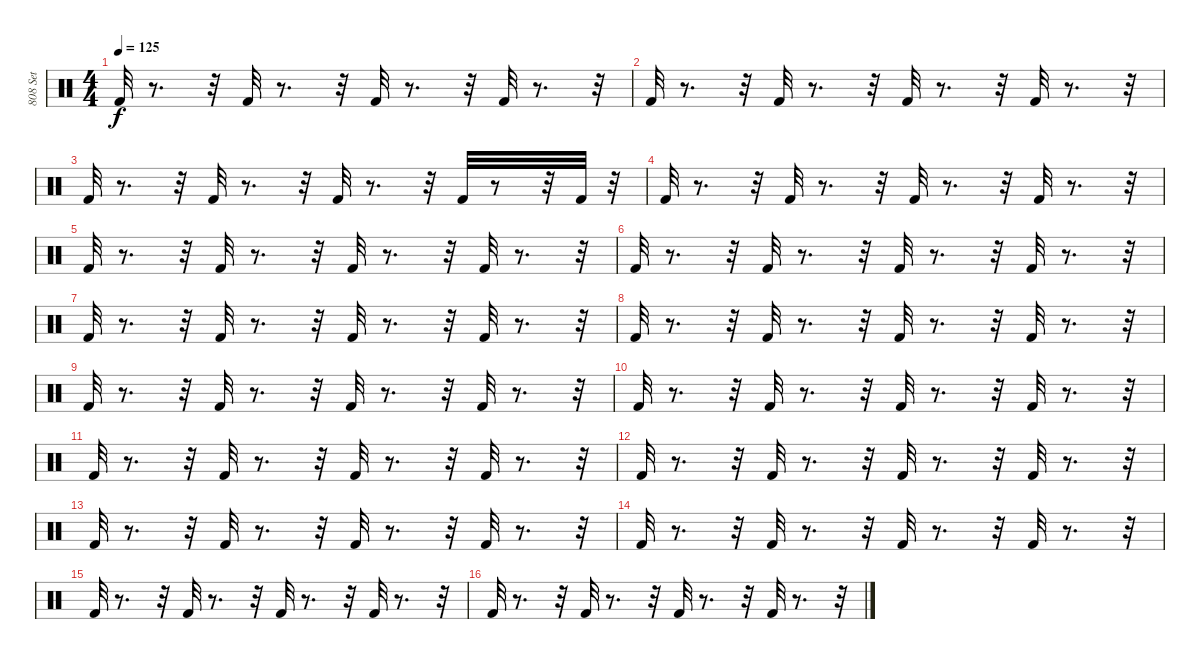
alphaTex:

\track ("808 Set" "808 Set") {instrument percussion}
\staff {score}
\articulation defaults
\ts (4 4)
\tempo 125
\clef neutral
\ks c "Kick (hit) 2".32{dy f}
r.8{d} r.32 "Kick (hit) 2".32 r.8{d} r.32 "Kick (hit) 2".32 r.8{d} r.32 "Kick (hit) 2".32 r.8{d} r.32 |
"Kick (hit) 2".32 r.8{d} r.32 "Kick (hit) 2".32 r.8{d} r.32 "Kick (hit) 2".32 r.8{d} r.32 "Kick (hit) 2".32 r.8{d} r.32 |
"Kick (hit) 2".32 r.8{d} r.32 "Kick (hit) 2".32 r.8{d} r.32 "Kick (hit) 2".32 r.8{d} r.32 "Kick (hit) 2".32 r.8 r.32 "Kick (hit) 2".32 r.32 |
"Kick (hit) 2".32 r.8{d} r.32 "Kick (hit) 2".32 r.8{d} r.32 "Kick (hit) 2".32 r.8{d} r.32 "Kick (hit) 2".32 r.8{d} r.32 |
"Kick (hit) 2".32 r.8{d} r.32 "Kick (hit) 2".32 r.8{d} r.32 "Kick (hit) 2".32 r.8{d} r.32 "Kick (hit) 2".32 r.8{d} r.32 |
"Kick (hit) 2".32 r.8{d} r.32 "Kick (hit) 2".32 r.8{d} r.32 "Kick (hit) 2".32 r.8{d} r.32 "Kick (hit) 2".32 r.8{d} r.32 |
"Kick (hit) 2".32 r.8{d} r.32 "Kick (hit) 2".32 r.8{d} r.32 "Kick (hit) 2".32 r.8{d} r.32 "Kick (hit) 2".32 r.8{d} r.32 |
"Kick (hit) 2".32 r.8{d} r.32 "Kick (hit) 2".32 r.8{d} r.32 "Kick (hit) 2".32 r.8{d} r.32 "Kick (hit) 2".32 r.8{d} r.32 |
"Kick (hit) 2".32 r.8{d} r.32 "Kick (hit) 2".32 r.8{d} r.32 "Kick (hit) 2".32 r.8{d} r.32 "Kick (hit) 2".32 r.8{d} r.32 |
"Kick (hit) 2".32 r.8{d} r.32 "Kick (hit) 2".32 r.8{d} r.32 "Kick (hit) 2".32 r.8{d} r.32 "Kick (hit) 2".32 r.8{d} r.32 |
"Kick (hit) 2".32 r.8{d} r.32 "Kick (hit) 2".32 r.8{d} r.32 "Kick (hit) 2".32 r.8{d} r.32 "Kick (hit) 2".32 r.8{d} r.32 |
"Kick (hit) 2".32 r.8{d} r.32 "Kick (hit) 2".32 r.8{d} r.32 "Kick (hit) 2".32 r.8{d} r.32 "Kick (hit) 2".32 r.8{d} r.32 |
"Kick (hit) 2".32 r.8{d} r.32 "Kick (hit) 2".32 r.8{d} r.32 "Kick (hit) 2".32 r.8{d} r.32 "Kick (hit) 2".32 r.8{d} r.32 |
"Kick (hit) 2".32 r.8{d} r.32 "Kick (hit) 2".32 r.8{d} r.32 "Kick (hit) 2".32 r.8{d} r.32 "Kick (hit) 2".32 r.8{d} r.32 |
"Kick (hit) 2".32 r.8{d} r.32 "Kick (hit) 2".32 r.8{d} r.32 "Kick (hit) 2".32 r.8{d} r.32 "Kick (hit) 2".32 r.8{d} r.32 |
"Kick (hit) 2".32 r.8{d} r.32 "Kick (hit) 2".32 r.8{d} r.32 "Kick (hit) 2".32 r.8{d} r.32 "Kick (hit) 2".32 r.8{d} r.32
